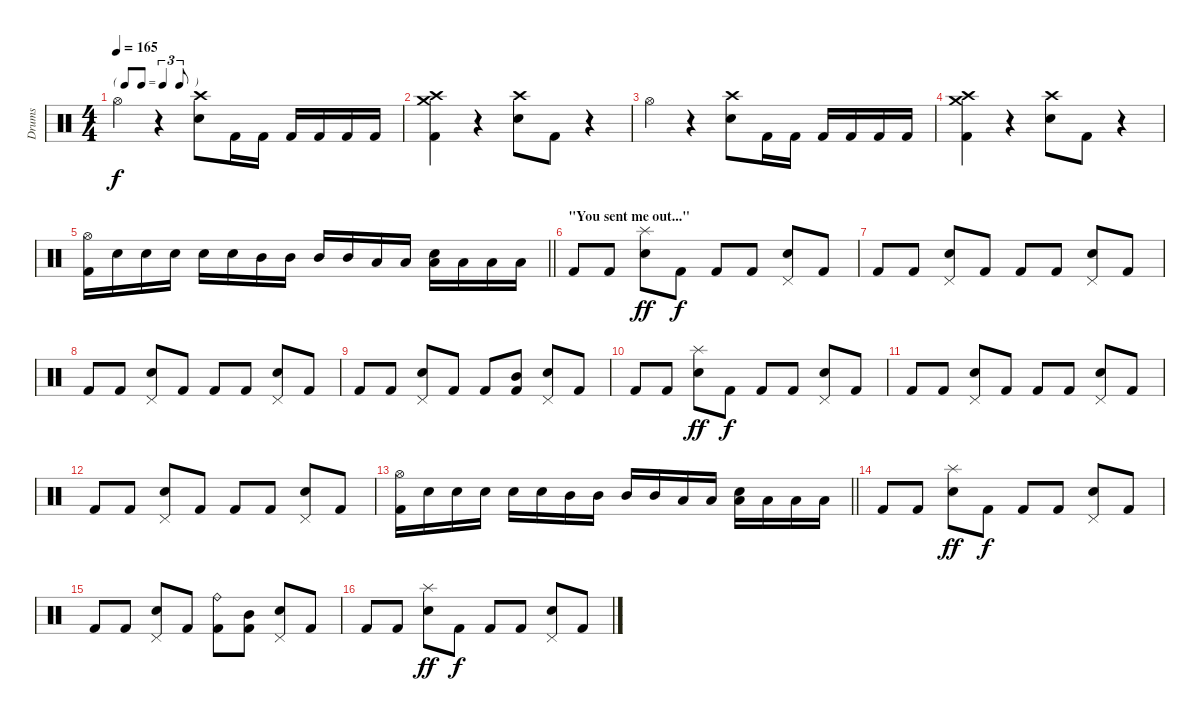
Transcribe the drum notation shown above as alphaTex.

\track ("Drums" "Drums") {instrument percussion}
\staff {score}
\articulation defaults
\ts (4 4)
\tf triplet8th
\tempo 165
\clef neutral
\ks c "Hi-Hat (open)".4{dy f}
r.4 ("Crash high (hit)" "Electric Snare (hit)").8 "Kick (hit) 2".16 "Kick (hit) 2".16 "Kick (hit) 2".16 "Kick (hit) 2".16 "Kick (hit) 2".16 "Kick (hit) 2".16 |
("Crash high (hit)" "Crash medium (hit)" "Kick (hit) 2").4 r.4 ("Crash high (hit)" "Electric Snare (hit)").8 "Kick (hit) 2".8 r.4 |
"Hi-Hat (open)".4 r.4 ("Crash high (hit)" "Electric Snare (hit)").8 "Kick (hit) 2".16 "Kick (hit) 2".16 "Kick (hit) 2".16 "Kick (hit) 2".16 "Kick (hit) 2".16 "Kick (hit) 2".16 |
("Crash high (hit)" "Crash medium (hit)" "Kick (hit) 2").4 r.4 ("Crash high (hit)" "Electric Snare (hit)").8 "Kick (hit) 2".8 r.4 |
\barLineRight lightlight
("Hi-Hat (open)" "Kick (hit) 2").16 "Electric Snare (hit)".16 "Electric Snare (hit)".16 "Electric Snare (hit)".16 "Electric Snare (hit)".16 "Electric Snare (hit)".16 "Mid Tom (hit)".16 "Mid Tom (hit)".16 "Mid Tom (hit)".16 "Mid Tom (hit)".16 "Low Tom (hit)".16 "Low Tom (hit)".16 ("Low Tom (hit)" "Electric Snare (hit)").16 "Low Tom (hit)".16 "Low Tom (hit)".16 "Low Tom (hit)".16 |
\section ("" "\"You sent me out...\"")
"Kick (hit) 2".8 "Kick (hit) 2".8 ("Splash (hit)" "Electric Snare (hit)").8{dy ff} "Kick (hit) 2".8{dy f} "Kick (hit) 2".8 "Kick (hit) 2".8 ("Pedal Hi-Hat (hit)" "Electric Snare (hit)").8 "Kick (hit) 2".8 |
"Kick (hit) 2".8 "Kick (hit) 2".8 ("Pedal Hi-Hat (hit)" "Electric Snare (hit)").8 "Kick (hit) 2".8 "Kick (hit) 2".8 "Kick (hit) 2".8 ("Pedal Hi-Hat (hit)" "Electric Snare (hit)").8 "Kick (hit) 2".8 |
"Kick (hit) 2".8 "Kick (hit) 2".8 ("Pedal Hi-Hat (hit)" "Electric Snare (hit)").8 "Kick (hit) 2".8 "Kick (hit) 2".8 "Kick (hit) 2".8 ("Pedal Hi-Hat (hit)" "Electric Snare (hit)").8 "Kick (hit) 2".8 |
"Kick (hit) 2".8 "Kick (hit) 2".8 ("Pedal Hi-Hat (hit)" "Electric Snare (hit)").8 "Kick (hit) 2".8 "Kick (hit) 2".8 ("Mid Tom (hit)" "Kick (hit) 2").8 ("Pedal Hi-Hat (hit)" "Electric Snare (hit)").8 "Kick (hit) 2".8 |
"Kick (hit) 2".8 "Kick (hit) 2".8 ("Splash (hit)" "Electric Snare (hit)").8{dy ff} "Kick (hit) 2".8{dy f} "Kick (hit) 2".8 "Kick (hit) 2".8 ("Pedal Hi-Hat (hit)" "Electric Snare (hit)").8 "Kick (hit) 2".8 |
"Kick (hit) 2".8 "Kick (hit) 2".8 ("Pedal Hi-Hat (hit)" "Electric Snare (hit)").8 "Kick (hit) 2".8 "Kick (hit) 2".8 "Kick (hit) 2".8 ("Pedal Hi-Hat (hit)" "Electric Snare (hit)").8 "Kick (hit) 2".8 |
"Kick (hit) 2".8 "Kick (hit) 2".8 ("Pedal Hi-Hat (hit)" "Electric Snare (hit)").8 "Kick (hit) 2".8 "Kick (hit) 2".8 "Kick (hit) 2".8 ("Pedal Hi-Hat (hit)" "Electric Snare (hit)").8 "Kick (hit) 2".8 |
\barLineRight lightlight
("Hi-Hat (open)" "Kick (hit) 2").16 "Electric Snare (hit)".16 "Electric Snare (hit)".16 "Electric Snare (hit)".16 "Electric Snare (hit)".16 "Electric Snare (hit)".16 "Mid Tom (hit)".16 "Mid Tom (hit)".16 "Mid Tom (hit)".16 "Mid Tom (hit)".16 "Low Tom (hit)".16 "Low Tom (hit)".16 ("Low Tom (hit)" "Electric Snare (hit)").16 "Low Tom (hit)".16 "Low Tom (hit)".16 "Low Tom (hit)".16 |
"Kick (hit) 2".8 "Kick (hit) 2".8 ("Splash (hit)" "Electric Snare (hit)").8{dy ff} "Kick (hit) 2".8{dy f} "Kick (hit) 2".8 "Kick (hit) 2".8 ("Pedal Hi-Hat (hit)" "Electric Snare (hit)").8 "Kick (hit) 2".8 |
"Kick (hit) 2".8 "Kick (hit) 2".8 ("Pedal Hi-Hat (hit)" "Electric Snare (hit)").8 "Kick (hit) 2".8 ("Ride (bell)" "Kick (hit) 2").8 ("Mid Tom (hit)" "Kick (hit) 2").8 ("Pedal Hi-Hat (hit)" "Electric Snare (hit)").8 "Kick (hit) 2".8 |
"Kick (hit) 2".8 "Kick (hit) 2".8 ("Splash (hit)" "Electric Snare (hit)").8{dy ff} "Kick (hit) 2".8{dy f} "Kick (hit) 2".8 "Kick (hit) 2".8 ("Pedal Hi-Hat (hit)" "Electric Snare (hit)").8 "Kick (hit) 2".8
